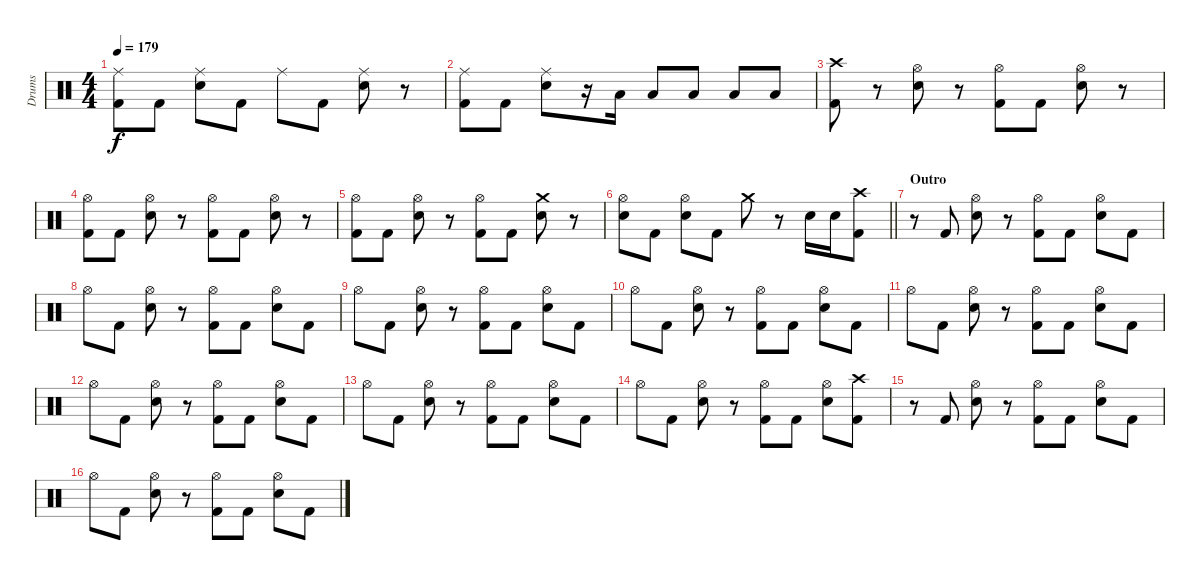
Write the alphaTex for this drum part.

\track ("Drums" "Drums") {instrument percussion}
\staff {score}
\articulation defaults
\ts (4 4)
\tempo 179
\clef neutral
\ks c
("Ride (middle)" "Kick (hit) 2").8{dy f} "Kick (hit) 2".8 ("Ride (middle)" "Snare (hit) 2").8 "Kick (hit) 2".8 "Ride (middle)".8 "Kick (hit) 2".8 ("Ride (middle)" "Snare (hit) 2").8 r.8 |
("Ride (middle)" "Kick (hit) 2").8 "Kick (hit) 2".8 ("Ride (middle)" "Snare (hit) 2").8 r.16 "Low Tom (hit)".16 "Low Tom (hit)".8 "Low Tom (hit)".8 "Low Tom (hit)".8 "Low Tom (hit)".8 |
("Crash high (hit)" "Kick (hit) 2").8 r.8 ("Hi-Hat (open)" "Snare (hit) 2").8 r.8 ("Hi-Hat (open)" "Kick (hit) 2").8 "Kick (hit) 2".8 ("Hi-Hat (open)" "Snare (hit) 2").8 r.8 |
("Hi-Hat (open)" "Kick (hit) 2").8 "Kick (hit) 2".8 ("Hi-Hat (open)" "Snare (hit) 2").8 r.8 ("Hi-Hat (open)" "Kick (hit) 2").8 "Kick (hit) 2".8 ("Hi-Hat (open)" "Snare (hit) 2").8 r.8 |
("Hi-Hat (open)" "Kick (hit) 2").8 "Kick (hit) 2".8 ("Hi-Hat (open)" "Snare (hit) 2").8 r.8 ("Hi-Hat (open)" "Kick (hit) 2").8 "Kick (hit) 2".8 ("Crash medium (hit)" "Snare (hit) 2").8 r.8 |
\barLineRight lightlight
("Hi-Hat (open)" "Snare (hit) 2").8 "Kick (hit) 2".8 ("Hi-Hat (open)" "Snare (hit) 2").8 "Kick (hit) 2".8 "Crash medium (hit)".8 r.8 "Snare (hit) 2".16 "Snare (hit) 2".16 ("Crash high (hit)" "Kick (hit) 2").8 |
\section ("" "Outro")
r.8 "Kick (hit) 2".8 ("Hi-Hat (open)" "Snare (hit) 2").8 r.8 ("Hi-Hat (open)" "Kick (hit) 2").8 "Kick (hit) 2".8 ("Hi-Hat (open)" "Snare (hit) 2").8 "Kick (hit) 2".8 |
"Hi-Hat (open)".8 "Kick (hit) 2".8 ("Hi-Hat (open)" "Snare (hit) 2").8 r.8 ("Hi-Hat (open)" "Kick (hit) 2").8 "Kick (hit) 2".8 ("Hi-Hat (open)" "Snare (hit) 2").8 "Kick (hit) 2".8 |
"Hi-Hat (open)".8 "Kick (hit) 2".8 ("Hi-Hat (open)" "Snare (hit) 2").8 r.8 ("Hi-Hat (open)" "Kick (hit) 2").8 "Kick (hit) 2".8 ("Hi-Hat (open)" "Snare (hit) 2").8 "Kick (hit) 2".8 |
"Hi-Hat (open)".8 "Kick (hit) 2".8 ("Hi-Hat (open)" "Snare (hit) 2").8 r.8 ("Hi-Hat (open)" "Kick (hit) 2").8 "Kick (hit) 2".8 ("Hi-Hat (open)" "Snare (hit) 2").8 "Kick (hit) 2".8 |
"Hi-Hat (open)".8 "Kick (hit) 2".8 ("Hi-Hat (open)" "Snare (hit) 2").8 r.8 ("Hi-Hat (open)" "Kick (hit) 2").8 "Kick (hit) 2".8 ("Hi-Hat (open)" "Snare (hit) 2").8 "Kick (hit) 2".8 |
"Hi-Hat (open)".8 "Kick (hit) 2".8 ("Hi-Hat (open)" "Snare (hit) 2").8 r.8 ("Hi-Hat (open)" "Kick (hit) 2").8 "Kick (hit) 2".8 ("Hi-Hat (open)" "Snare (hit) 2").8 "Kick (hit) 2".8 |
"Hi-Hat (open)".8 "Kick (hit) 2".8 ("Hi-Hat (open)" "Snare (hit) 2").8 r.8 ("Hi-Hat (open)" "Kick (hit) 2").8 "Kick (hit) 2".8 ("Hi-Hat (open)" "Snare (hit) 2").8 "Kick (hit) 2".8 |
"Hi-Hat (open)".8 "Kick (hit) 2".8 ("Hi-Hat (open)" "Snare (hit) 2").8 r.8 ("Hi-Hat (open)" "Kick (hit) 2").8 "Kick (hit) 2".8 ("Hi-Hat (open)" "Snare (hit) 2").8 ("Crash high (hit)" "Kick (hit) 2").8 |
r.8 "Kick (hit) 2".8 ("Hi-Hat (open)" "Snare (hit) 2").8 r.8 ("Hi-Hat (open)" "Kick (hit) 2").8 "Kick (hit) 2".8 ("Hi-Hat (open)" "Snare (hit) 2").8 "Kick (hit) 2".8 |
"Hi-Hat (open)".8 "Kick (hit) 2".8 ("Hi-Hat (open)" "Snare (hit) 2").8 r.8 ("Hi-Hat (open)" "Kick (hit) 2").8 "Kick (hit) 2".8 ("Hi-Hat (open)" "Snare (hit) 2").8 "Kick (hit) 2".8
